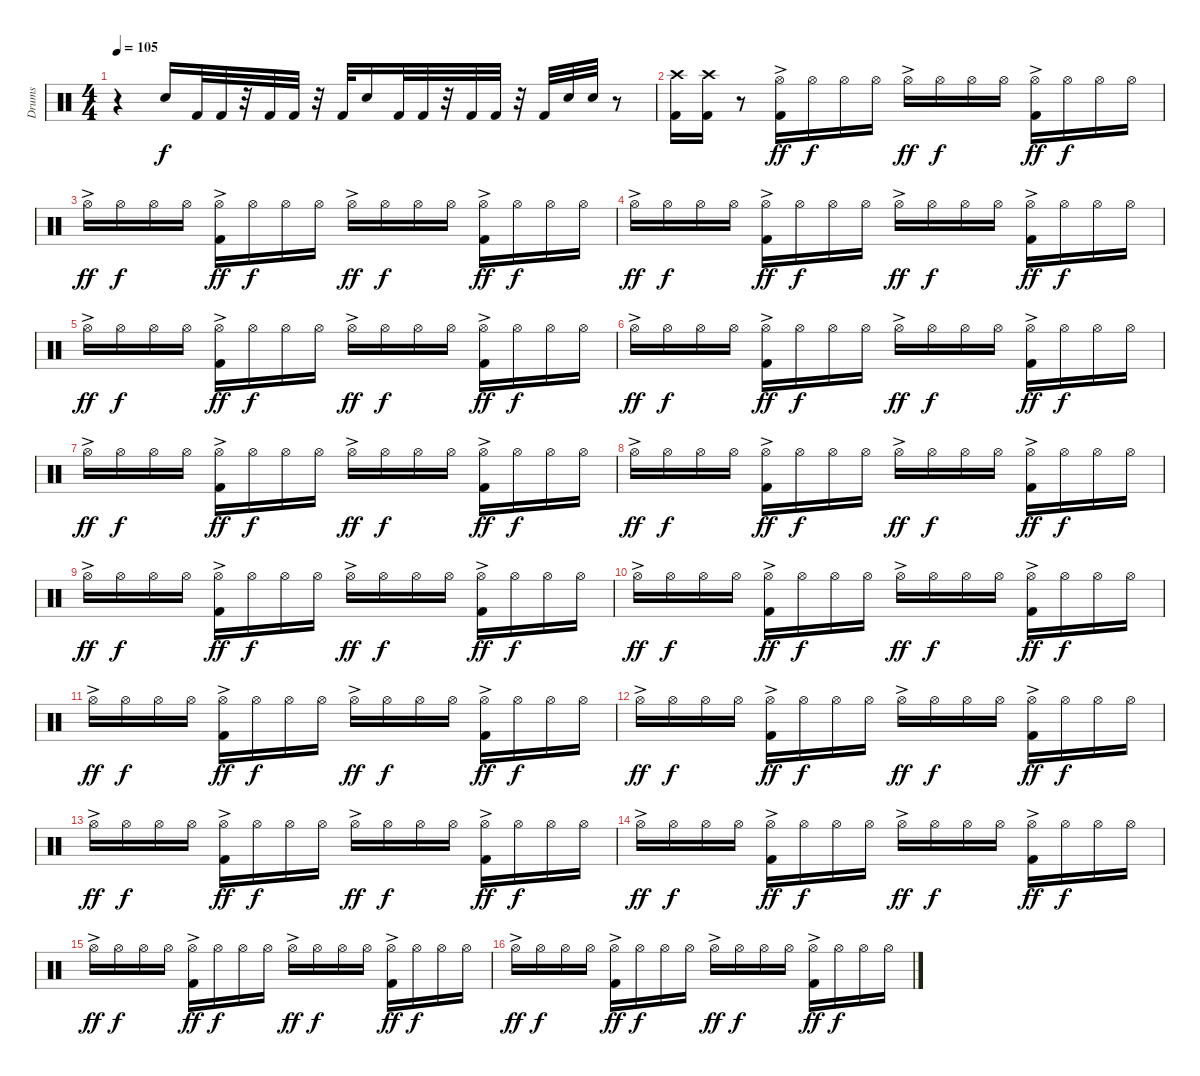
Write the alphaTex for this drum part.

\track ("Drums" "Drums") {instrument percussion}
\staff {score}
\articulation defaults
\ts (4 4)
\tempo 105
\clef neutral
\ks c
r.4{dy f} "Snare (hit) 2".16 "Kick (hit) 2".32 "Kick (hit) 2".32 r.32 "Kick (hit) 2".32 "Kick (hit) 2".32 r.32 "Kick (hit) 2".32 "Snare (hit) 2".16 "Kick (hit) 2".32 "Kick (hit) 2".32 r.32 "Kick (hit) 2".32 "Kick (hit) 2".32 r.32 "Kick (hit) 2".32 "Snare (hit) 2".32 "Snare (hit) 2".32 r.8 |
("Crash high (hit)" "Kick (hit) 2").16 ("Crash high (hit)" "Kick (hit) 2").16 r.8 ("Hi-Hat (open)"{ac} "Kick (hit) 2").16{dy ff} "Hi-Hat (open)".16{dy f} "Hi-Hat (open)".16 "Hi-Hat (open)".16 "Hi-Hat (open)"{ac}.16{dy ff} "Hi-Hat (open)".16{dy f} "Hi-Hat (open)".16 "Hi-Hat (open)".16 ("Hi-Hat (open)"{ac} "Kick (hit) 2").16{dy ff} "Hi-Hat (open)".16{dy f} "Hi-Hat (open)".16 "Hi-Hat (open)".16 |
"Hi-Hat (open)"{ac}.16{dy ff} "Hi-Hat (open)".16{dy f} "Hi-Hat (open)".16 "Hi-Hat (open)".16 ("Hi-Hat (open)"{ac} "Kick (hit) 2").16{dy ff} "Hi-Hat (open)".16{dy f} "Hi-Hat (open)".16 "Hi-Hat (open)".16 "Hi-Hat (open)"{ac}.16{dy ff} "Hi-Hat (open)".16{dy f} "Hi-Hat (open)".16 "Hi-Hat (open)".16 ("Hi-Hat (open)"{ac} "Kick (hit) 2").16{dy ff} "Hi-Hat (open)".16{dy f} "Hi-Hat (open)".16 "Hi-Hat (open)".16 |
"Hi-Hat (open)"{ac}.16{dy ff} "Hi-Hat (open)".16{dy f} "Hi-Hat (open)".16 "Hi-Hat (open)".16 ("Hi-Hat (open)"{ac} "Kick (hit) 2").16{dy ff} "Hi-Hat (open)".16{dy f} "Hi-Hat (open)".16 "Hi-Hat (open)".16 "Hi-Hat (open)"{ac}.16{dy ff} "Hi-Hat (open)".16{dy f} "Hi-Hat (open)".16 "Hi-Hat (open)".16 ("Hi-Hat (open)"{ac} "Kick (hit) 2").16{dy ff} "Hi-Hat (open)".16{dy f} "Hi-Hat (open)".16 "Hi-Hat (open)".16 |
"Hi-Hat (open)"{ac}.16{dy ff} "Hi-Hat (open)".16{dy f} "Hi-Hat (open)".16 "Hi-Hat (open)".16 ("Hi-Hat (open)"{ac} "Kick (hit) 2").16{dy ff} "Hi-Hat (open)".16{dy f} "Hi-Hat (open)".16 "Hi-Hat (open)".16 "Hi-Hat (open)"{ac}.16{dy ff} "Hi-Hat (open)".16{dy f} "Hi-Hat (open)".16 "Hi-Hat (open)".16 ("Hi-Hat (open)"{ac} "Kick (hit) 2").16{dy ff} "Hi-Hat (open)".16{dy f} "Hi-Hat (open)".16 "Hi-Hat (open)".16 |
"Hi-Hat (open)"{ac}.16{dy ff} "Hi-Hat (open)".16{dy f} "Hi-Hat (open)".16 "Hi-Hat (open)".16 ("Hi-Hat (open)"{ac} "Kick (hit) 2").16{dy ff} "Hi-Hat (open)".16{dy f} "Hi-Hat (open)".16 "Hi-Hat (open)".16 "Hi-Hat (open)"{ac}.16{dy ff} "Hi-Hat (open)".16{dy f} "Hi-Hat (open)".16 "Hi-Hat (open)".16 ("Hi-Hat (open)"{ac} "Kick (hit) 2").16{dy ff} "Hi-Hat (open)".16{dy f} "Hi-Hat (open)".16 "Hi-Hat (open)".16 |
"Hi-Hat (open)"{ac}.16{dy ff} "Hi-Hat (open)".16{dy f} "Hi-Hat (open)".16 "Hi-Hat (open)".16 ("Hi-Hat (open)"{ac} "Kick (hit) 2").16{dy ff} "Hi-Hat (open)".16{dy f} "Hi-Hat (open)".16 "Hi-Hat (open)".16 "Hi-Hat (open)"{ac}.16{dy ff} "Hi-Hat (open)".16{dy f} "Hi-Hat (open)".16 "Hi-Hat (open)".16 ("Hi-Hat (open)"{ac} "Kick (hit) 2").16{dy ff} "Hi-Hat (open)".16{dy f} "Hi-Hat (open)".16 "Hi-Hat (open)".16 |
"Hi-Hat (open)"{ac}.16{dy ff} "Hi-Hat (open)".16{dy f} "Hi-Hat (open)".16 "Hi-Hat (open)".16 ("Hi-Hat (open)"{ac} "Kick (hit) 2").16{dy ff} "Hi-Hat (open)".16{dy f} "Hi-Hat (open)".16 "Hi-Hat (open)".16 "Hi-Hat (open)"{ac}.16{dy ff} "Hi-Hat (open)".16{dy f} "Hi-Hat (open)".16 "Hi-Hat (open)".16 ("Hi-Hat (open)"{ac} "Kick (hit) 2").16{dy ff} "Hi-Hat (open)".16{dy f} "Hi-Hat (open)".16 "Hi-Hat (open)".16 |
"Hi-Hat (open)"{ac}.16{dy ff} "Hi-Hat (open)".16{dy f} "Hi-Hat (open)".16 "Hi-Hat (open)".16 ("Hi-Hat (open)"{ac} "Kick (hit) 2").16{dy ff} "Hi-Hat (open)".16{dy f} "Hi-Hat (open)".16 "Hi-Hat (open)".16 "Hi-Hat (open)"{ac}.16{dy ff} "Hi-Hat (open)".16{dy f} "Hi-Hat (open)".16 "Hi-Hat (open)".16 ("Hi-Hat (open)"{ac} "Kick (hit) 2").16{dy ff} "Hi-Hat (open)".16{dy f} "Hi-Hat (open)".16 "Hi-Hat (open)".16 |
"Hi-Hat (open)"{ac}.16{dy ff} "Hi-Hat (open)".16{dy f} "Hi-Hat (open)".16 "Hi-Hat (open)".16 ("Hi-Hat (open)"{ac} "Kick (hit) 2").16{dy ff} "Hi-Hat (open)".16{dy f} "Hi-Hat (open)".16 "Hi-Hat (open)".16 "Hi-Hat (open)"{ac}.16{dy ff} "Hi-Hat (open)".16{dy f} "Hi-Hat (open)".16 "Hi-Hat (open)".16 ("Hi-Hat (open)"{ac} "Kick (hit) 2").16{dy ff} "Hi-Hat (open)".16{dy f} "Hi-Hat (open)".16 "Hi-Hat (open)".16 |
"Hi-Hat (open)"{ac}.16{dy ff} "Hi-Hat (open)".16{dy f} "Hi-Hat (open)".16 "Hi-Hat (open)".16 ("Hi-Hat (open)"{ac} "Kick (hit) 2").16{dy ff} "Hi-Hat (open)".16{dy f} "Hi-Hat (open)".16 "Hi-Hat (open)".16 "Hi-Hat (open)"{ac}.16{dy ff} "Hi-Hat (open)".16{dy f} "Hi-Hat (open)".16 "Hi-Hat (open)".16 ("Hi-Hat (open)"{ac} "Kick (hit) 2").16{dy ff} "Hi-Hat (open)".16{dy f} "Hi-Hat (open)".16 "Hi-Hat (open)".16 |
"Hi-Hat (open)"{ac}.16{dy ff} "Hi-Hat (open)".16{dy f} "Hi-Hat (open)".16 "Hi-Hat (open)".16 ("Hi-Hat (open)"{ac} "Kick (hit) 2").16{dy ff} "Hi-Hat (open)".16{dy f} "Hi-Hat (open)".16 "Hi-Hat (open)".16 "Hi-Hat (open)"{ac}.16{dy ff} "Hi-Hat (open)".16{dy f} "Hi-Hat (open)".16 "Hi-Hat (open)".16 ("Hi-Hat (open)"{ac} "Kick (hit) 2").16{dy ff} "Hi-Hat (open)".16{dy f} "Hi-Hat (open)".16 "Hi-Hat (open)".16 |
"Hi-Hat (open)"{ac}.16{dy ff} "Hi-Hat (open)".16{dy f} "Hi-Hat (open)".16 "Hi-Hat (open)".16 ("Hi-Hat (open)"{ac} "Kick (hit) 2").16{dy ff} "Hi-Hat (open)".16{dy f} "Hi-Hat (open)".16 "Hi-Hat (open)".16 "Hi-Hat (open)"{ac}.16{dy ff} "Hi-Hat (open)".16{dy f} "Hi-Hat (open)".16 "Hi-Hat (open)".16 ("Hi-Hat (open)"{ac} "Kick (hit) 2").16{dy ff} "Hi-Hat (open)".16{dy f} "Hi-Hat (open)".16 "Hi-Hat (open)".16 |
"Hi-Hat (open)"{ac}.16{dy ff} "Hi-Hat (open)".16{dy f} "Hi-Hat (open)".16 "Hi-Hat (open)".16 ("Hi-Hat (open)"{ac} "Kick (hit) 2").16{dy ff} "Hi-Hat (open)".16{dy f} "Hi-Hat (open)".16 "Hi-Hat (open)".16 "Hi-Hat (open)"{ac}.16{dy ff} "Hi-Hat (open)".16{dy f} "Hi-Hat (open)".16 "Hi-Hat (open)".16 ("Hi-Hat (open)"{ac} "Kick (hit) 2").16{dy ff} "Hi-Hat (open)".16{dy f} "Hi-Hat (open)".16 "Hi-Hat (open)".16 |
"Hi-Hat (open)"{ac}.16{dy ff} "Hi-Hat (open)".16{dy f} "Hi-Hat (open)".16 "Hi-Hat (open)".16 ("Hi-Hat (open)"{ac} "Kick (hit) 2").16{dy ff} "Hi-Hat (open)".16{dy f} "Hi-Hat (open)".16 "Hi-Hat (open)".16 "Hi-Hat (open)"{ac}.16{dy ff} "Hi-Hat (open)".16{dy f} "Hi-Hat (open)".16 "Hi-Hat (open)".16 ("Hi-Hat (open)"{ac} "Kick (hit) 2").16{dy ff} "Hi-Hat (open)".16{dy f} "Hi-Hat (open)".16 "Hi-Hat (open)".16 |
"Hi-Hat (open)"{ac}.16{dy ff} "Hi-Hat (open)".16{dy f} "Hi-Hat (open)".16 "Hi-Hat (open)".16 ("Hi-Hat (open)"{ac} "Kick (hit) 2").16{dy ff} "Hi-Hat (open)".16{dy f} "Hi-Hat (open)".16 "Hi-Hat (open)".16 "Hi-Hat (open)"{ac}.16{dy ff} "Hi-Hat (open)".16{dy f} "Hi-Hat (open)".16 "Hi-Hat (open)".16 ("Hi-Hat (open)"{ac} "Kick (hit) 2").16{dy ff} "Hi-Hat (open)".16{dy f} "Hi-Hat (open)".16 "Hi-Hat (open)".16
